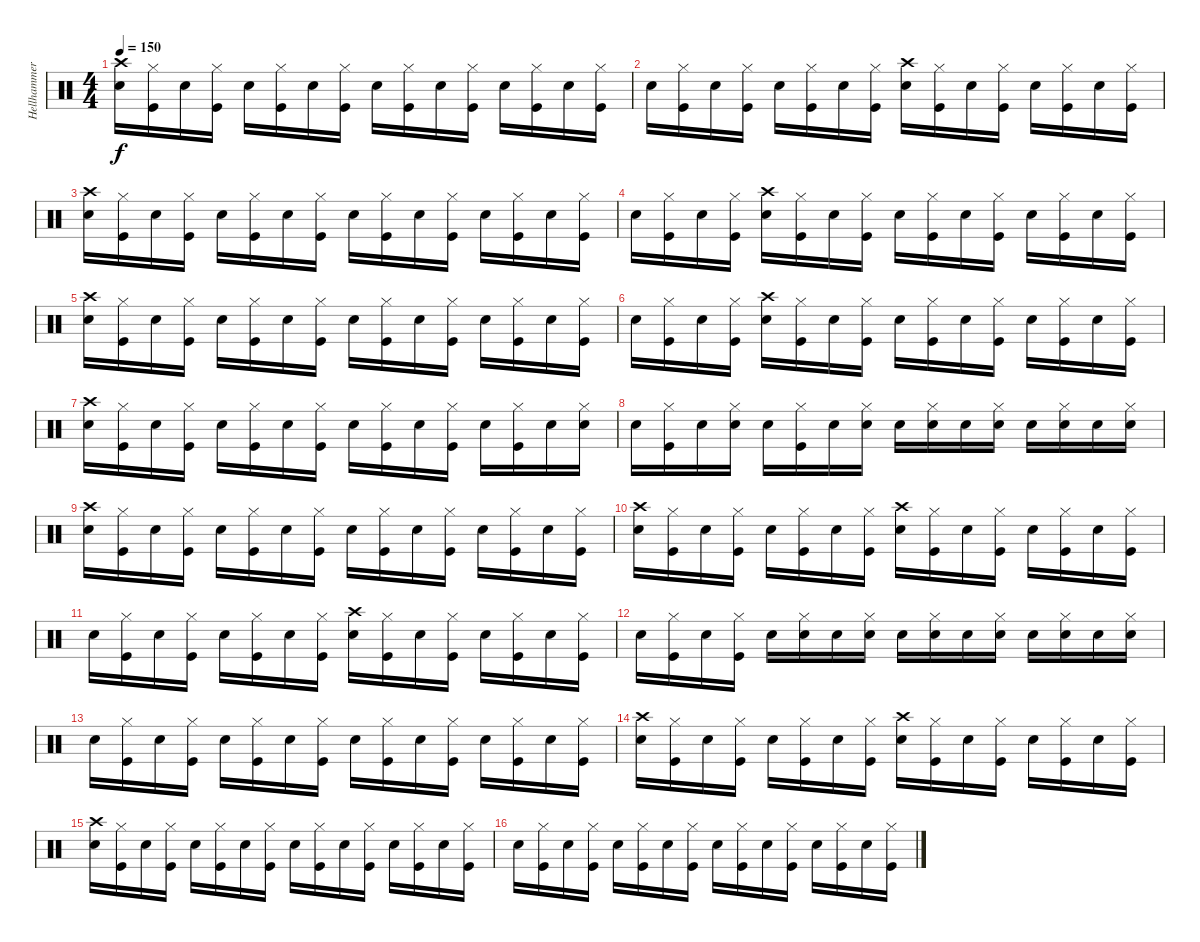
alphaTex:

\track ("Hellhammer" "Hellhammer") {instrument percussion}
\staff {score}
\articulation defaults
\ts (4 4)
\tempo 150
\clef neutral
\ks c
("Snare (hit) 2" "Crash high (hit)").16{dy f} ("Kick (hit)" "Hi-Hat (closed)").16 "Snare (hit) 2".16 ("Kick (hit)" "Hi-Hat (closed)").16 "Snare (hit) 2".16 ("Kick (hit)" "Hi-Hat (closed)").16 "Snare (hit) 2".16 ("Kick (hit)" "Hi-Hat (closed)").16 "Snare (hit) 2".16 ("Kick (hit)" "Hi-Hat (closed)").16 "Snare (hit) 2".16 ("Kick (hit)" "Hi-Hat (closed)").16 "Snare (hit) 2".16 ("Kick (hit)" "Hi-Hat (closed)").16 "Snare (hit) 2".16 ("Kick (hit)" "Hi-Hat (closed)").16 |
"Snare (hit) 2".16 ("Kick (hit)" "Hi-Hat (closed)").16 "Snare (hit) 2".16 ("Kick (hit)" "Hi-Hat (closed)").16 "Snare (hit) 2".16 ("Kick (hit)" "Hi-Hat (closed)").16 "Snare (hit) 2".16 ("Kick (hit)" "Hi-Hat (closed)").16 ("Snare (hit) 2" "Crash high (hit)").16 ("Kick (hit)" "Hi-Hat (closed)").16 "Snare (hit) 2".16 ("Kick (hit)" "Hi-Hat (closed)").16 "Snare (hit) 2".16 ("Kick (hit)" "Hi-Hat (closed)").16 "Snare (hit) 2".16 ("Kick (hit)" "Hi-Hat (closed)").16 |
("Snare (hit) 2" "Crash high (hit)").16 ("Kick (hit)" "Hi-Hat (closed)").16 "Snare (hit) 2".16 ("Kick (hit)" "Hi-Hat (closed)").16 "Snare (hit) 2".16 ("Kick (hit)" "Hi-Hat (closed)").16 "Snare (hit) 2".16 ("Kick (hit)" "Hi-Hat (closed)").16 "Snare (hit) 2".16 ("Kick (hit)" "Hi-Hat (closed)").16 "Snare (hit) 2".16 ("Kick (hit)" "Hi-Hat (closed)").16 "Snare (hit) 2".16 ("Kick (hit)" "Hi-Hat (closed)").16 "Snare (hit) 2".16 ("Kick (hit)" "Hi-Hat (closed)").16 |
"Snare (hit) 2".16 ("Kick (hit)" "Hi-Hat (closed)").16 "Snare (hit) 2".16 ("Kick (hit)" "Hi-Hat (closed)").16 ("Snare (hit) 2" "Crash high (hit)").16 ("Kick (hit)" "Hi-Hat (closed)").16 "Snare (hit) 2".16 ("Kick (hit)" "Hi-Hat (closed)").16 "Snare (hit) 2".16 ("Kick (hit)" "Hi-Hat (closed)").16 "Snare (hit) 2".16 ("Kick (hit)" "Hi-Hat (closed)").16 "Snare (hit) 2".16 ("Kick (hit)" "Hi-Hat (closed)").16 "Snare (hit) 2".16 ("Kick (hit)" "Hi-Hat (closed)").16 |
("Snare (hit) 2" "Crash high (hit)").16 ("Kick (hit)" "Hi-Hat (closed)").16 "Snare (hit) 2".16 ("Kick (hit)" "Hi-Hat (closed)").16 "Snare (hit) 2".16 ("Kick (hit)" "Hi-Hat (closed)").16 "Snare (hit) 2".16 ("Kick (hit)" "Hi-Hat (closed)").16 "Snare (hit) 2".16 ("Kick (hit)" "Hi-Hat (closed)").16 "Snare (hit) 2".16 ("Kick (hit)" "Hi-Hat (closed)").16 "Snare (hit) 2".16 ("Kick (hit)" "Hi-Hat (closed)").16 "Snare (hit) 2".16 ("Kick (hit)" "Hi-Hat (closed)").16 |
"Snare (hit) 2".16 ("Kick (hit)" "Hi-Hat (closed)").16 "Snare (hit) 2".16 ("Kick (hit)" "Hi-Hat (closed)").16 ("Snare (hit) 2" "Crash high (hit)").16 ("Kick (hit)" "Hi-Hat (closed)").16 "Snare (hit) 2".16 ("Kick (hit)" "Hi-Hat (closed)").16 "Snare (hit) 2".16 ("Kick (hit)" "Hi-Hat (closed)").16 "Snare (hit) 2".16 ("Kick (hit)" "Hi-Hat (closed)").16 "Snare (hit) 2".16 ("Kick (hit)" "Hi-Hat (closed)").16 "Snare (hit) 2".16 ("Kick (hit)" "Hi-Hat (closed)").16 |
("Snare (hit) 2" "Crash high (hit)").16 ("Kick (hit)" "Hi-Hat (closed)").16 "Snare (hit) 2".16 ("Kick (hit)" "Hi-Hat (closed)").16 "Snare (hit) 2".16 ("Kick (hit)" "Hi-Hat (closed)").16 "Snare (hit) 2".16 ("Kick (hit)" "Hi-Hat (closed)").16 "Snare (hit) 2".16 ("Kick (hit)" "Hi-Hat (closed)").16 "Snare (hit) 2".16 ("Kick (hit)" "Hi-Hat (closed)").16 "Snare (hit) 2".16 ("Kick (hit)" "Hi-Hat (closed)").16 "Snare (hit) 2".16 ("Snare (hit) 2" "Hi-Hat (closed)").16 |
"Snare (hit) 2".16 ("Kick (hit)" "Hi-Hat (closed)").16 "Snare (hit) 2".16 ("Snare (hit) 2" "Hi-Hat (closed)").16 "Snare (hit) 2".16 ("Kick (hit)" "Hi-Hat (closed)").16 "Snare (hit) 2".16 ("Snare (hit) 2" "Hi-Hat (closed)").16 "Snare (hit) 2".16 ("Snare (hit) 2" "Hi-Hat (closed)").16 "Snare (hit) 2".16 ("Snare (hit) 2" "Hi-Hat (closed)").16 "Snare (hit) 2".16 ("Snare (hit) 2" "Hi-Hat (closed)").16 "Snare (hit) 2".16 ("Snare (hit) 2" "Hi-Hat (closed)").16 |
("Snare (hit) 2" "Crash high (hit)").16 ("Kick (hit)" "Hi-Hat (closed)").16 "Snare (hit) 2".16 ("Kick (hit)" "Hi-Hat (closed)").16 "Snare (hit) 2".16 ("Kick (hit)" "Hi-Hat (closed)").16 "Snare (hit) 2".16 ("Kick (hit)" "Hi-Hat (closed)").16 "Snare (hit) 2".16 ("Kick (hit)" "Hi-Hat (closed)").16 "Snare (hit) 2".16 ("Kick (hit)" "Hi-Hat (closed)").16 "Snare (hit) 2".16 ("Kick (hit)" "Hi-Hat (closed)").16 "Snare (hit) 2".16 ("Kick (hit)" "Hi-Hat (closed)").16 |
("Snare (hit) 2" "Crash high (hit)").16 ("Kick (hit)" "Hi-Hat (closed)").16 "Snare (hit) 2".16 ("Kick (hit)" "Hi-Hat (closed)").16 "Snare (hit) 2".16 ("Kick (hit)" "Hi-Hat (closed)").16 "Snare (hit) 2".16 ("Kick (hit)" "Hi-Hat (closed)").16 ("Snare (hit) 2" "Crash high (hit)").16 ("Kick (hit)" "Hi-Hat (closed)").16 "Snare (hit) 2".16 ("Kick (hit)" "Hi-Hat (closed)").16 "Snare (hit) 2".16 ("Kick (hit)" "Hi-Hat (closed)").16 "Snare (hit) 2".16 ("Kick (hit)" "Hi-Hat (closed)").16 |
"Snare (hit) 2".16 ("Kick (hit)" "Hi-Hat (closed)").16 "Snare (hit) 2".16 ("Kick (hit)" "Hi-Hat (closed)").16 "Snare (hit) 2".16 ("Kick (hit)" "Hi-Hat (closed)").16 "Snare (hit) 2".16 ("Kick (hit)" "Hi-Hat (closed)").16 ("Snare (hit) 2" "Crash high (hit)").16 ("Kick (hit)" "Hi-Hat (closed)").16 "Snare (hit) 2".16 ("Kick (hit)" "Hi-Hat (closed)").16 "Snare (hit) 2".16 ("Kick (hit)" "Hi-Hat (closed)").16 "Snare (hit) 2".16 ("Kick (hit)" "Hi-Hat (closed)").16 |
"Snare (hit) 2".16 ("Kick (hit)" "Hi-Hat (closed)").16 "Snare (hit) 2".16 ("Kick (hit)" "Hi-Hat (closed)").16 "Snare (hit) 2".16 ("Snare (hit) 2" "Hi-Hat (closed)").16 "Snare (hit) 2".16 ("Snare (hit) 2" "Hi-Hat (closed)").16 "Snare (hit) 2".16 ("Snare (hit) 2" "Hi-Hat (closed)").16 "Snare (hit) 2".16 ("Snare (hit) 2" "Hi-Hat (closed)").16 "Snare (hit) 2".16 ("Snare (hit) 2" "Hi-Hat (closed)").16 "Snare (hit) 2".16 ("Snare (hit) 2" "Hi-Hat (closed)").16 |
"Snare (hit) 2".16 ("Kick (hit)" "Hi-Hat (closed)").16 "Snare (hit) 2".16 ("Kick (hit)" "Hi-Hat (closed)").16 "Snare (hit) 2".16 ("Kick (hit)" "Hi-Hat (closed)").16 "Snare (hit) 2".16 ("Kick (hit)" "Hi-Hat (closed)").16 "Snare (hit) 2".16 ("Kick (hit)" "Hi-Hat (closed)").16 "Snare (hit) 2".16 ("Kick (hit)" "Hi-Hat (closed)").16 "Snare (hit) 2".16 ("Kick (hit)" "Hi-Hat (closed)").16 "Snare (hit) 2".16 ("Kick (hit)" "Hi-Hat (closed)").16 |
("Snare (hit) 2" "Crash high (hit)").16 ("Kick (hit)" "Hi-Hat (closed)").16 "Snare (hit) 2".16 ("Kick (hit)" "Hi-Hat (closed)").16 "Snare (hit) 2".16 ("Kick (hit)" "Hi-Hat (closed)").16 "Snare (hit) 2".16 ("Kick (hit)" "Hi-Hat (closed)").16 ("Snare (hit) 2" "Crash high (hit)").16 ("Kick (hit)" "Hi-Hat (closed)").16 "Snare (hit) 2".16 ("Kick (hit)" "Hi-Hat (closed)").16 "Snare (hit) 2".16 ("Kick (hit)" "Hi-Hat (closed)").16 "Snare (hit) 2".16 ("Kick (hit)" "Hi-Hat (closed)").16 |
("Snare (hit) 2" "Crash high (hit)").16 ("Kick (hit)" "Hi-Hat (closed)").16 "Snare (hit) 2".16 ("Kick (hit)" "Hi-Hat (closed)").16 "Snare (hit) 2".16 ("Kick (hit)" "Hi-Hat (closed)").16 "Snare (hit) 2".16 ("Kick (hit)" "Hi-Hat (closed)").16 "Snare (hit) 2".16 ("Kick (hit)" "Hi-Hat (closed)").16 "Snare (hit) 2".16 ("Kick (hit)" "Hi-Hat (closed)").16 "Snare (hit) 2".16 ("Kick (hit)" "Hi-Hat (closed)").16 "Snare (hit) 2".16 ("Kick (hit)" "Hi-Hat (closed)").16 |
"Snare (hit) 2".16 ("Kick (hit)" "Hi-Hat (closed)").16 "Snare (hit) 2".16 ("Kick (hit)" "Hi-Hat (closed)").16 "Snare (hit) 2".16 ("Kick (hit)" "Hi-Hat (closed)").16 "Snare (hit) 2".16 ("Kick (hit)" "Hi-Hat (closed)").16 "Snare (hit) 2".16 ("Kick (hit)" "Hi-Hat (closed)").16 "Snare (hit) 2".16 ("Kick (hit)" "Hi-Hat (closed)").16 "Snare (hit) 2".16 ("Kick (hit)" "Hi-Hat (closed)").16 "Snare (hit) 2".16 ("Kick (hit)" "Hi-Hat (closed)").16
